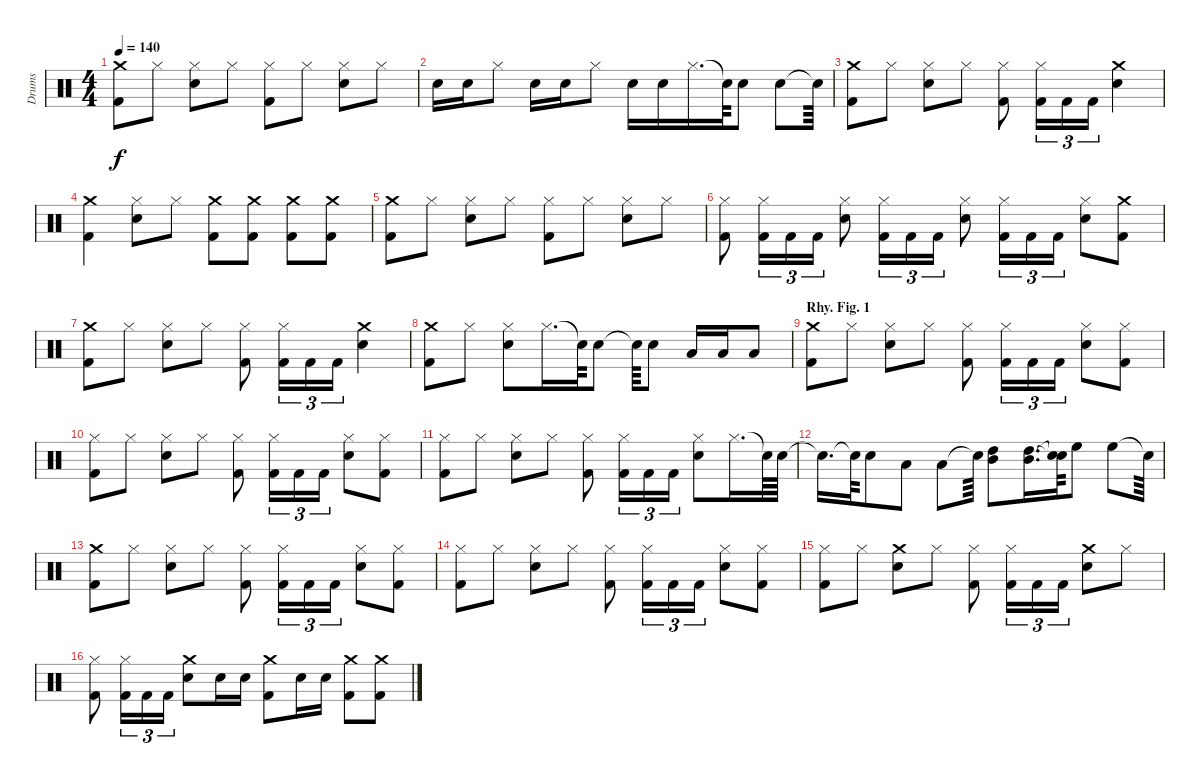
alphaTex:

\track ("Drums" "Drums") {instrument percussion}
\staff {score}
\articulation defaults
\ts (4 4)
\tempo 140
\clef neutral
\ks c
("Crash medium (hit)" "Kick (hit) 2").8{dy f} "Hi-Hat (closed)".8 ("Snare (hit) 2" "Hi-Hat (closed)").8 "Hi-Hat (closed)".8 ("Hi-Hat (closed)" "Kick (hit) 2").8 "Hi-Hat (closed)".8 ("Snare (hit) 2" "Hi-Hat (closed)").8 "Hi-Hat (closed)".8 |
"Snare (hit) 2".16 "Snare (hit) 2".16 "Hi-Hat (closed)".8 "Snare (hit) 2".16 "Snare (hit) 2".16 "Hi-Hat (closed)".8 "Snare (hit) 2".16 "Snare (hit) 2".16 "Hi-Hat (closed)".16{d} "Snare (hit)"{t}.64 "Snare (hit) 2".8 "Snare (hit) 2".8 "Snare (hit)"{t}.64 |
("Crash medium (hit)" "Kick (hit) 2").8 "Hi-Hat (closed)".8 ("Snare (hit) 2" "Hi-Hat (closed)").8 "Hi-Hat (closed)".8 ("Hi-Hat (closed)" "Kick (hit) 2").8 ("Hi-Hat (closed)" "Kick (hit) 2").16{tu (3 2)} "Kick (hit) 2".16{tu (3 2)} "Kick (hit) 2".16{tu (3 2)} ("Snare (hit) 2" "Crash medium (hit)").4 |
("Kick (hit) 2" "Crash medium (hit)").4 ("Snare (hit) 2" "Hi-Hat (closed)").8 "Hi-Hat (closed)".8 ("Kick (hit) 2" "Crash medium (hit)").8 ("Kick (hit) 2" "Crash medium (hit)").8 ("Kick (hit) 2" "Crash medium (hit)").8 ("Kick (hit) 2" "Crash medium (hit)").8 |
("Crash medium (hit)" "Kick (hit) 2").8 "Hi-Hat (closed)".8 ("Snare (hit) 2" "Hi-Hat (closed)").8 "Hi-Hat (closed)".8 ("Hi-Hat (closed)" "Kick (hit) 2").8 "Hi-Hat (closed)".8 ("Snare (hit) 2" "Hi-Hat (closed)").8 "Hi-Hat (closed)".8 |
("Kick (hit) 2" "Hi-Hat (closed)").8 ("Kick (hit) 2" "Hi-Hat (closed)").16{tu (3 2)} "Kick (hit) 2".16{tu (3 2)} "Kick (hit) 2".16{tu (3 2)} ("Snare (hit) 2" "Hi-Hat (closed)").8 ("Kick (hit) 2" "Hi-Hat (closed)").16{tu (3 2)} "Kick (hit) 2".16{tu (3 2)} "Kick (hit) 2".16{tu (3 2)} ("Snare (hit) 2" "Hi-Hat (closed)").8 ("Kick (hit) 2" "Hi-Hat (closed)").16{tu (3 2)} "Kick (hit) 2".16{tu (3 2)} "Kick (hit) 2".16{tu (3 2)} ("Snare (hit) 2" "Hi-Hat (closed)").8 ("Crash medium (hit)" "Kick (hit) 2").8 |
("Crash medium (hit)" "Kick (hit) 2").8 "Hi-Hat (closed)".8 ("Snare (hit) 2" "Hi-Hat (closed)").8 "Hi-Hat (closed)".8 ("Hi-Hat (closed)" "Kick (hit) 2").8 ("Hi-Hat (closed)" "Kick (hit) 2").16{tu (3 2)} "Kick (hit) 2".16{tu (3 2)} "Kick (hit) 2".16{tu (3 2)} ("Snare (hit) 2" "Crash medium (hit)").4 |
("Kick (hit) 2" "Crash medium (hit)").8 "Hi-Hat (closed)".8 ("Snare (hit) 2" "Hi-Hat (closed)").8 "Hi-Hat (closed)".16{d} "Snare (hit)"{t}.64 "Snare (hit) 2".8 "Snare (hit)"{t}.64 "Snare (hit) 2".8 "Low Tom (hit)".16 "Low Tom (hit)".16 "Low Tom (hit)".8 |
\section ("" "Rhy. Fig. 1")
("Crash medium (hit)" "Kick (hit) 2").8 "Hi-Hat (closed)".8 ("Snare (hit) 2" "Hi-Hat (closed)").8 "Hi-Hat (closed)".8 ("Kick (hit) 2" "Hi-Hat (closed)").8 ("Kick (hit) 2" "Hi-Hat (closed)").16{tu (3 2)} "Kick (hit) 2".16{tu (3 2)} "Kick (hit) 2".16{tu (3 2)} ("Snare (hit) 2" "Hi-Hat (closed)").8 ("Kick (hit) 2" "Hi-Hat (closed)").8 |
("Hi-Hat (closed)" "Kick (hit) 2").8 "Hi-Hat (closed)".8 ("Snare (hit) 2" "Hi-Hat (closed)").8 "Hi-Hat (closed)".8 ("Kick (hit) 2" "Hi-Hat (closed)").8 ("Kick (hit) 2" "Hi-Hat (closed)").16{tu (3 2)} "Kick (hit) 2".16{tu (3 2)} "Kick (hit) 2".16{tu (3 2)} ("Snare (hit) 2" "Hi-Hat (closed)").8 ("Kick (hit) 2" "Hi-Hat (closed)").8 |
("Hi-Hat (closed)" "Kick (hit) 2").8 "Hi-Hat (closed)".8 ("Snare (hit) 2" "Hi-Hat (closed)").8 "Hi-Hat (closed)".8 ("Kick (hit) 2" "Hi-Hat (closed)").8 ("Kick (hit) 2" "Hi-Hat (closed)").16{tu (3 2)} "Kick (hit) 2".16{tu (3 2)} "Kick (hit) 2".16{tu (3 2)} ("Snare (hit) 2" "Hi-Hat (closed)").8 "Hi-Hat (closed)".16{d} "Snare (hit)"{t}.64 "Snare (hit) 2".64 |
"Snare (hit)"{t}.16{d} "Snare (hit)"{t}.64 "Snare (hit) 2".8 "Low Tom (hit)".8 "Low Tom (hit)".8 "Snare (hit)"{t}.64 ("High Tom (hit)" "Mid Tom (hit)").8 ("High Tom (hit)" "Mid Tom (hit)").16{d} ("Snare (hit)"{t} "Snare (hit)"{t}).64 "High Floor Tom (hit)".8 "High Floor Tom (hit)".8 "Snare (hit)"{t}.64 |
("Crash medium (hit)" "Kick (hit) 2").8 "Hi-Hat (closed)".8 ("Snare (hit) 2" "Hi-Hat (closed)").8 "Hi-Hat (closed)".8 ("Kick (hit) 2" "Hi-Hat (closed)").8 ("Kick (hit) 2" "Hi-Hat (closed)").16{tu (3 2)} "Kick (hit) 2".16{tu (3 2)} "Kick (hit) 2".16{tu (3 2)} ("Snare (hit) 2" "Hi-Hat (closed)").8 ("Kick (hit) 2" "Hi-Hat (closed)").8 |
("Hi-Hat (closed)" "Kick (hit) 2").8 "Hi-Hat (closed)".8 ("Snare (hit) 2" "Hi-Hat (closed)").8 "Hi-Hat (closed)".8 ("Kick (hit) 2" "Hi-Hat (closed)").8 ("Kick (hit) 2" "Hi-Hat (closed)").16{tu (3 2)} "Kick (hit) 2".16{tu (3 2)} "Kick (hit) 2".16{tu (3 2)} ("Snare (hit) 2" "Hi-Hat (closed)").8 ("Kick (hit) 2" "Hi-Hat (closed)").8 |
("Hi-Hat (closed)" "Kick (hit) 2").8 "Hi-Hat (closed)".8 ("Crash medium (hit)" "Snare (hit) 2").8 "Hi-Hat (closed)".8 ("Kick (hit) 2" "Hi-Hat (closed)").8 ("Kick (hit) 2" "Hi-Hat (closed)").16{tu (3 2)} "Kick (hit) 2".16{tu (3 2)} "Kick (hit) 2".16{tu (3 2)} ("Crash medium (hit)" "Snare (hit) 2").8 "Hi-Hat (closed)".8 |
("Kick (hit) 2" "Hi-Hat (closed)").8 ("Kick (hit) 2" "Hi-Hat (closed)").16{tu (3 2)} "Kick (hit) 2".16{tu (3 2)} "Kick (hit) 2".16{tu (3 2)} ("Snare (hit) 2" "Crash medium (hit)").8 "Snare (hit) 2".16 "Snare (hit) 2".16 ("Kick (hit) 2" "Crash medium (hit)").8 "Snare (hit) 2".16 "Snare (hit) 2".16 ("Kick (hit) 2" "Crash medium (hit)").8 ("Kick (hit) 2" "Crash medium (hit)").8
